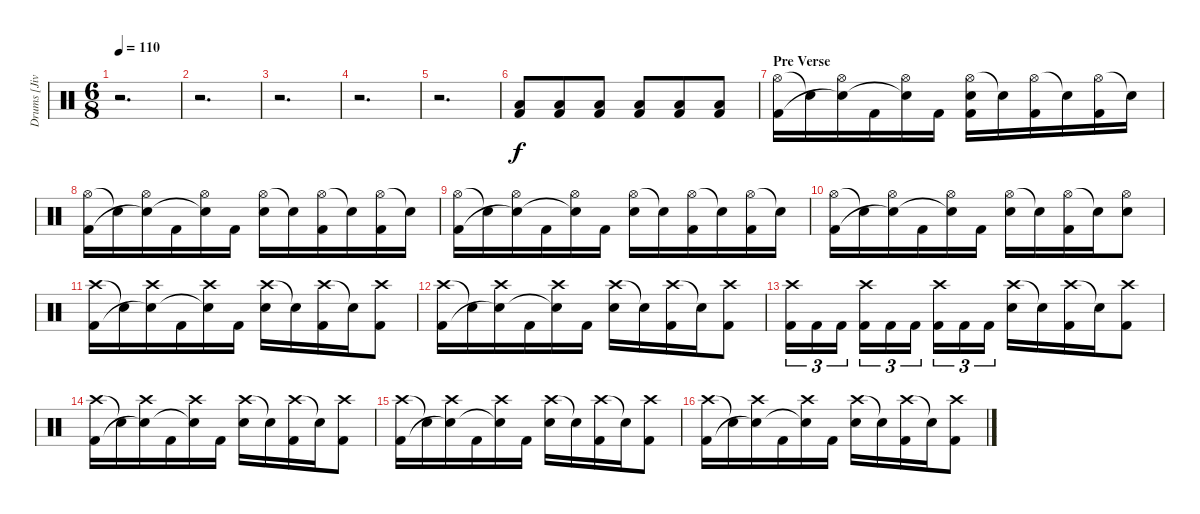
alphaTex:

\track ("Drums [Jivarp]" "Drums [Jiv") {instrument percussion}
\staff {score}
\articulation defaults
\ts (6 8)
\tempo 110
\clef neutral
\ks c
r.2{d dy f} |
r.2{d} |
r.2{d} |
r.2{d} |
r.2{d} |
("Low Tom (hit)" "Kick (hit) 2").8 ("Low Tom (hit)" "Kick (hit) 2").8 ("Low Tom (hit)" "Kick (hit) 2").8 ("Low Tom (hit)" "Kick (hit) 2").8 ("Low Tom (hit)" "Kick (hit) 2").8 ("Low Tom (hit)" "Kick (hit) 2").8 |
\section ("" "Pre Verse")
("Hi-Hat (open)" "Kick (hit) 2").16 "Snare (hit)"{t}.16 ("Hi-Hat (open)" "Snare (hit)"{t}).16 "Kick (hit) 2".16 ("Hi-Hat (open)" "Snare (hit)"{t}).16 "Kick (hit) 2".16 ("Hi-Hat (open)" "Electric Snare (hit)" "Kick (hit) 2").16 "Snare (hit)"{t}.16 ("Hi-Hat (open)" "Kick (hit) 2").16 "Snare (hit)"{t}.16 ("Hi-Hat (open)" "Kick (hit) 2").16 "Snare (hit)"{t}.16 |
("Hi-Hat (open)" "Kick (hit) 2").16 "Snare (hit)"{t}.16 ("Hi-Hat (open)" "Snare (hit)"{t}).16 "Kick (hit) 2".16 ("Hi-Hat (open)" "Snare (hit)"{t}).16 "Kick (hit) 2".16 ("Hi-Hat (open)" "Electric Snare (hit)").16 "Snare (hit)"{t}.16 ("Hi-Hat (open)" "Kick (hit) 2").16 "Snare (hit)"{t}.16 ("Hi-Hat (open)" "Kick (hit) 2").16 "Snare (hit)"{t}.16 |
("Hi-Hat (open)" "Kick (hit) 2").16 "Snare (hit)"{t}.16 ("Hi-Hat (open)" "Snare (hit)"{t}).16 "Kick (hit) 2".16 ("Hi-Hat (open)" "Snare (hit)"{t}).16 "Kick (hit) 2".16 ("Hi-Hat (open)" "Electric Snare (hit)").16 "Snare (hit)"{t}.16 ("Hi-Hat (open)" "Kick (hit) 2").16 "Snare (hit)"{t}.16 ("Hi-Hat (open)" "Kick (hit) 2").16 "Snare (hit)"{t}.16 |
("Hi-Hat (open)" "Kick (hit) 2").16 "Snare (hit)"{t}.16 ("Hi-Hat (open)" "Snare (hit)"{t}).16 "Kick (hit) 2".16 ("Hi-Hat (open)" "Snare (hit)"{t}).16 "Kick (hit) 2".16 ("Hi-Hat (open)" "Electric Snare (hit)").16 "Snare (hit)"{t}.16 ("Hi-Hat (open)" "Kick (hit) 2").16 "Snare (hit)"{t}.16 ("Hi-Hat (open)" "Electric Snare (hit)").8 |
("Crash high (hit)" "Kick (hit) 2").16 "Snare (hit)"{t}.16 ("Crash high (hit)" "Snare (hit)"{t}).16 "Kick (hit) 2".16 ("Crash high (hit)" "Snare (hit)"{t}).16 "Kick (hit) 2".16 ("Crash high (hit)" "Electric Snare (hit)").16 "Snare (hit)"{t}.16 ("Crash high (hit)" "Kick (hit) 2").16 "Snare (hit)"{t}.16 ("Crash high (hit)" "Kick (hit) 2").8 |
("Crash high (hit)" "Kick (hit) 2").16 "Snare (hit)"{t}.16 ("Crash high (hit)" "Snare (hit)"{t}).16 "Kick (hit) 2".16 ("Crash high (hit)" "Snare (hit)"{t}).16 "Kick (hit) 2".16 ("Crash high (hit)" "Electric Snare (hit)").16 "Snare (hit)"{t}.16 ("Crash high (hit)" "Kick (hit) 2").16 "Snare (hit)"{t}.16 ("Crash high (hit)" "Kick (hit) 2").8 |
("Crash high (hit)" "Kick (hit) 2").16{tu (3 2)} "Kick (hit) 2".16{tu (3 2)} "Kick (hit) 2".16{tu (3 2)} ("Crash high (hit)" "Kick (hit) 2").16{tu (3 2)} "Kick (hit) 2".16{tu (3 2)} "Kick (hit) 2".16{tu (3 2)} ("Crash high (hit)" "Kick (hit) 2").16{tu (3 2)} "Kick (hit) 2".16{tu (3 2)} "Kick (hit) 2".16{tu (3 2)} ("Crash high (hit)" "Electric Snare (hit)").16 "Snare (hit)"{t}.16 ("Crash high (hit)" "Kick (hit) 2").16 "Snare (hit)"{t}.16 ("Crash high (hit)" "Kick (hit) 2").8 |
("Crash high (hit)" "Kick (hit) 2").16 "Snare (hit)"{t}.16 ("Crash high (hit)" "Snare (hit)"{t}).16 "Kick (hit) 2".16 ("Crash high (hit)" "Snare (hit)"{t}).16 "Kick (hit) 2".16 ("Crash high (hit)" "Electric Snare (hit)").16 "Snare (hit)"{t}.16 ("Crash high (hit)" "Kick (hit) 2").16 "Snare (hit)"{t}.16 ("Crash high (hit)" "Kick (hit) 2").8 |
("Crash high (hit)" "Kick (hit) 2").16 "Snare (hit)"{t}.16 ("Crash high (hit)" "Snare (hit)"{t}).16 "Kick (hit) 2".16 ("Crash high (hit)" "Snare (hit)"{t}).16 "Kick (hit) 2".16 ("Crash high (hit)" "Electric Snare (hit)").16 "Snare (hit)"{t}.16 ("Crash high (hit)" "Kick (hit) 2").16 "Snare (hit)"{t}.16 ("Crash high (hit)" "Kick (hit) 2").8 |
("Crash high (hit)" "Kick (hit) 2").16 "Snare (hit)"{t}.16 ("Crash high (hit)" "Snare (hit)"{t}).16 "Kick (hit) 2".16 ("Crash high (hit)" "Snare (hit)"{t}).16 "Kick (hit) 2".16 ("Crash high (hit)" "Electric Snare (hit)").16 "Snare (hit)"{t}.16 ("Crash high (hit)" "Kick (hit) 2").16 "Snare (hit)"{t}.16 ("Crash high (hit)" "Kick (hit) 2").8
